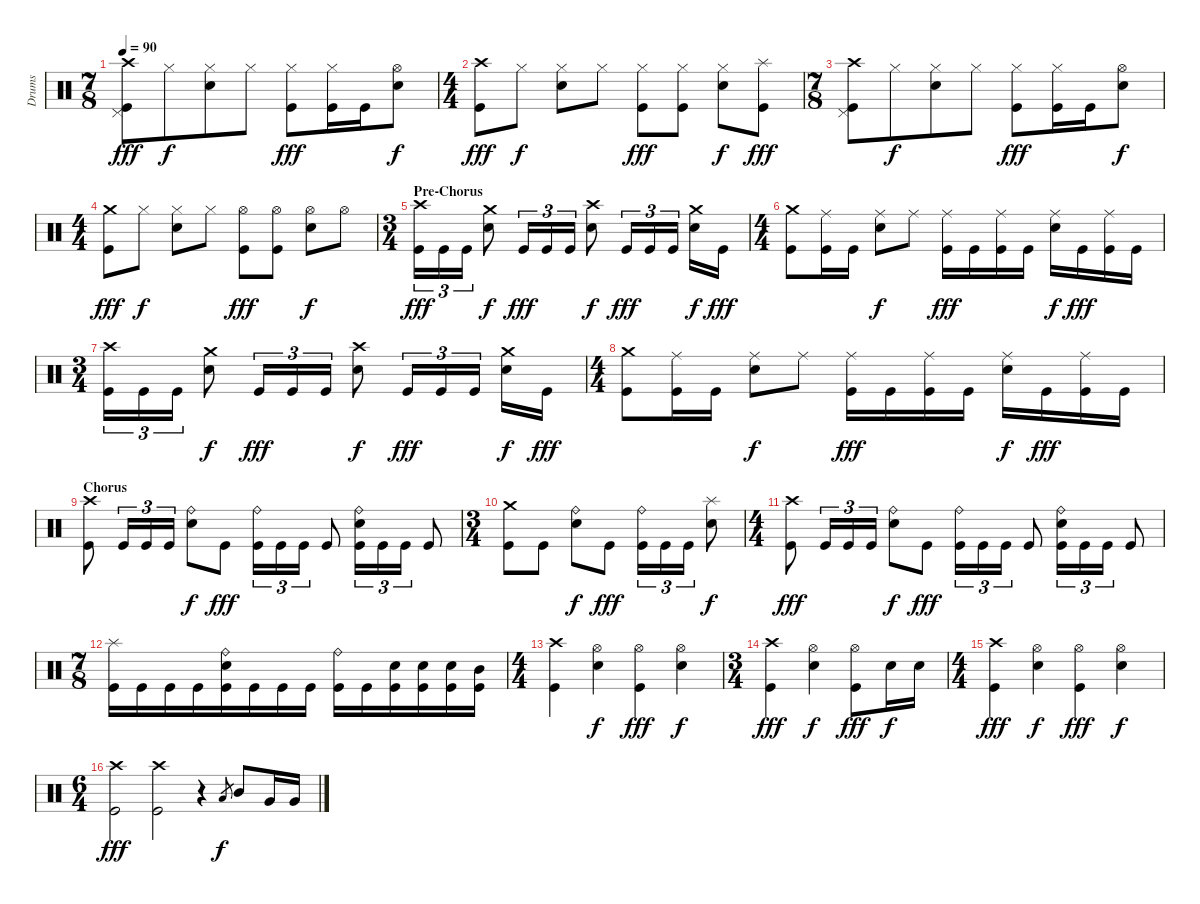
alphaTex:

\track ("Drums" "Drums") {instrument percussion}
\staff {score}
\articulation defaults
\ts (7 8)
\tempo 90
\clef neutral
\ks c
("Crash high (hit)" "Pedal Hi-Hat (hit)" "Kick (hit)").8{dy fff} "Hi-Hat (closed)".8{dy f} ("Hi-Hat (closed)" "Electric Snare (hit)").8 "Hi-Hat (closed)".8 ("Hi-Hat (closed)" "Kick (hit)").8{dy fff} ("Hi-Hat (closed)" "Kick (hit)").16 "Kick (hit)".16 ("Hi-Hat (open)" "Electric Snare (hit)").8{dy f} |
\ts (4 4)
("Crash high (hit)" "Kick (hit)").8{dy fff} "Hi-Hat (closed)".8{dy f} ("Hi-Hat (closed)" "Electric Snare (hit)").8 "Hi-Hat (closed)".8 ("Hi-Hat (closed)" "Kick (hit)").8{dy fff} ("Hi-Hat (closed)" "Kick (hit)").8 ("Hi-Hat (closed)" "Electric Snare (hit)").8{dy f} ("Splash (hit)" "Kick (hit)").8{dy fff} |
\ts (7 8)
("Crash high (hit)" "Pedal Hi-Hat (hit)" "Kick (hit)").8 "Hi-Hat (closed)".8{dy f} ("Hi-Hat (closed)" "Electric Snare (hit)").8 "Hi-Hat (closed)".8 ("Hi-Hat (closed)" "Kick (hit)").8{dy fff} ("Hi-Hat (closed)" "Kick (hit)").16 "Kick (hit)".16 ("Hi-Hat (open)" "Electric Snare (hit)").8{dy f} |
\ts (4 4)
("Crash medium (hit)" "Kick (hit)").8{dy fff} "Hi-Hat (closed)".8{dy f} ("Hi-Hat (closed)" "Electric Snare (hit)").8 "Hi-Hat (closed)".8 ("Hi-Hat (open)" "Kick (hit)").8{dy fff} ("Hi-Hat (open)" "Kick (hit)").8 ("Hi-Hat (open)" "Electric Snare (hit)").8{dy f} "Hi-Hat (open)".8 |
\ts (3 4)
\section ("" "Pre-Chorus")
("Crash high (hit)" "Kick (hit)").16{tu (3 2) dy fff} "Kick (hit)".16{tu (3 2)} "Kick (hit)".16{tu (3 2)} ("Crash medium (hit)" "Electric Snare (hit)").8{dy f} "Kick (hit)".16{tu (3 2) dy fff} "Kick (hit)".16{tu (3 2)} "Kick (hit)".16{tu (3 2)} ("Crash high (hit)" "Electric Snare (hit)").8{dy f} "Kick (hit)".16{tu (3 2) dy fff} "Kick (hit)".16{tu (3 2)} "Kick (hit)".16{tu (3 2)} ("Crash medium (hit)" "Electric Snare (hit)").16{dy f} "Kick (hit)".16{dy fff} |
\ts (4 4)
("Crash medium (hit)" "Kick (hit)").8 ("Ride (middle)" "Kick (hit)").16 "Kick (hit)".16 ("Ride (middle)" "Electric Snare (hit)").8{dy f} "Ride (middle)".8 ("Ride (middle)" "Kick (hit)").16{dy fff} "Kick (hit)".16 ("Ride (middle)" "Kick (hit)").16 "Kick (hit)".16 ("Ride (middle)" "Electric Snare (hit)").16{dy f} "Kick (hit)".16{dy fff} ("Ride (middle)" "Kick (hit)").16 "Kick (hit)".16 |
\ts (3 4)
("Crash high (hit)" "Kick (hit)").16{tu (3 2)} "Kick (hit)".16{tu (3 2)} "Kick (hit)".16{tu (3 2)} ("Crash medium (hit)" "Electric Snare (hit)").8{dy f} "Kick (hit)".16{tu (3 2) dy fff} "Kick (hit)".16{tu (3 2)} "Kick (hit)".16{tu (3 2)} ("Crash high (hit)" "Electric Snare (hit)").8{dy f} "Kick (hit)".16{tu (3 2) dy fff} "Kick (hit)".16{tu (3 2)} "Kick (hit)".16{tu (3 2)} ("Crash medium (hit)" "Electric Snare (hit)").16{dy f} "Kick (hit)".16{dy fff} |
\ts (4 4)
("Crash medium (hit)" "Kick (hit)").8 ("Ride (middle)" "Kick (hit)").16 "Kick (hit)".16 ("Ride (middle)" "Electric Snare (hit)").8{dy f} "Ride (middle)".8 ("Ride (middle)" "Kick (hit)").16{dy fff} "Kick (hit)".16 ("Ride (middle)" "Kick (hit)").16 "Kick (hit)".16 ("Ride (middle)" "Electric Snare (hit)").16{dy f} "Kick (hit)".16{dy fff} ("Ride (middle)" "Kick (hit)").16 "Kick (hit)".16 |
\section ("" "Chorus")
("Crash high (hit)" "Kick (hit)").8 "Kick (hit)".16{tu (3 2)} "Kick (hit)".16{tu (3 2)} "Kick (hit)".16{tu (3 2)} ("Ride (bell)" "Electric Snare (hit)").8{dy f} "Kick (hit)".8{dy fff} ("Ride (bell)" "Kick (hit)").16{tu (3 2)} "Kick (hit)".16{tu (3 2)} "Kick (hit)".16{tu (3 2)} "Kick (hit)".8 ("Ride (bell)" "Electric Snare (hit)" "Kick (hit)").16{tu (3 2)} "Kick (hit)".16{tu (3 2)} "Kick (hit)".16{tu (3 2)} "Kick (hit)".8 |
\ts (3 4)
("Crash medium (hit)" "Kick (hit)").8 "Kick (hit)".8 ("Ride (bell)" "Electric Snare (hit)").8{dy f} "Kick (hit)".8{dy fff} ("Ride (bell)" "Kick (hit)").16{tu (3 2)} "Kick (hit)".16{tu (3 2)} "Kick (hit)".16{tu (3 2)} ("Splash (hit)" "Electric Snare (hit)").8{dy f} |
\ts (4 4)
("Crash high (hit)" "Kick (hit)").8{dy fff} "Kick (hit)".16{tu (3 2)} "Kick (hit)".16{tu (3 2)} "Kick (hit)".16{tu (3 2)} ("Ride (bell)" "Electric Snare (hit)").8{dy f} "Kick (hit)".8{dy fff} ("Ride (bell)" "Kick (hit)").16{tu (3 2)} "Kick (hit)".16{tu (3 2)} "Kick (hit)".16{tu (3 2)} "Kick (hit)".8 ("Ride (bell)" "Electric Snare (hit)" "Kick (hit)").16{tu (3 2)} "Kick (hit)".16{tu (3 2)} "Kick (hit)".16{tu (3 2)} "Kick (hit)".8 |
\ts (7 8)
("Splash (hit)" "Kick (hit)").16 "Kick (hit)".16 "Kick (hit)".16 "Kick (hit)".16 ("Ride (bell)" "Electric Snare (hit)" "Kick (hit)").16 "Kick (hit)".16 "Kick (hit)".16 "Kick (hit)".16 ("Ride (bell)" "Kick (hit)").16 "Kick (hit)".16 ("Electric Snare (hit)" "Kick (hit)").16 ("Electric Snare (hit)" "Kick (hit)").16 ("Electric Snare (hit)" "Kick (hit)").16 ("Mid Tom (hit)" "Kick (hit)").16 |
\ts (4 4)
("Crash high (hit)" "Kick (hit)").4 ("Hi-Hat (open)" "Electric Snare (hit)").4{dy f} ("Hi-Hat (open)" "Kick (hit)").4{dy fff} ("Hi-Hat (open)" "Electric Snare (hit)").4{dy f} |
\ts (3 4)
("Crash high (hit)" "Kick (hit)").4{dy fff} ("Hi-Hat (open)" "Electric Snare (hit)").4{dy f} ("Hi-Hat (open)" "Kick (hit)").8{dy fff} "Electric Snare (hit)".16{dy f} "Electric Snare (hit)".16 |
\ts (4 4)
("Crash high (hit)" "Kick (hit)").4{dy fff} ("Hi-Hat (open)" "Electric Snare (hit)").4{dy f} ("Hi-Hat (open)" "Kick (hit)").4{dy fff} ("Hi-Hat (open)" "Electric Snare (hit)").4{dy f} |
\ts (6 4)
("Crash high (hit)" "Kick (hit)").2{dy fff} ("Crash high (hit)" "Kick (hit)").2 r.4 "Low Tom (hit)".8{gr dy f} "Mid Tom (hit)".8 "Very Low Tom (hit)".16 "Very Low Tom (hit)".16
